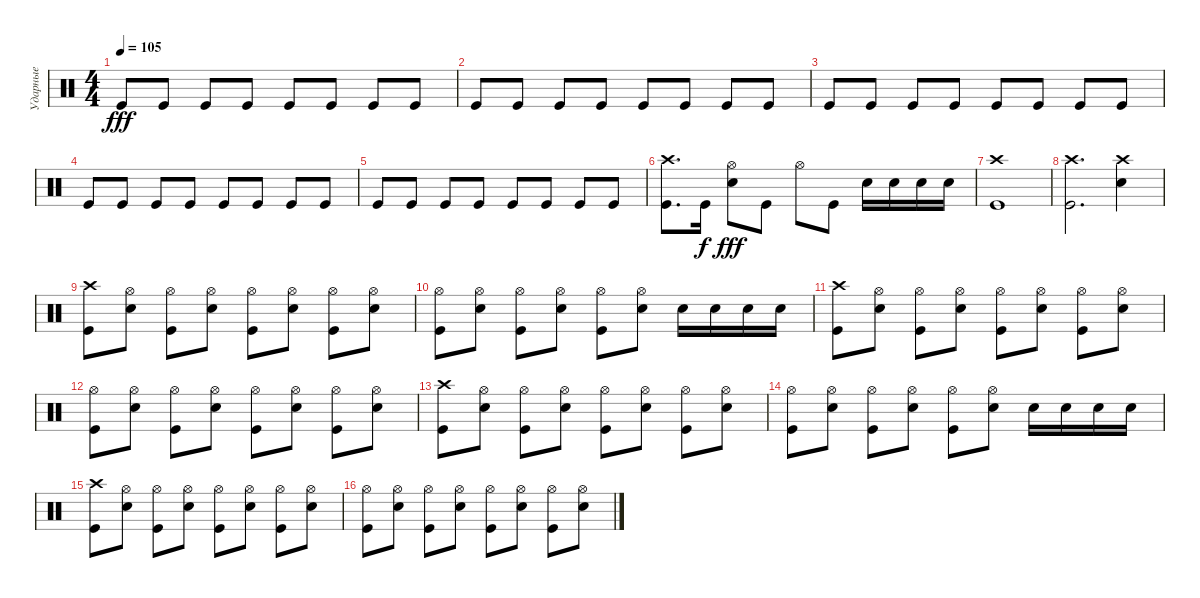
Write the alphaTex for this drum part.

\track ("Ударные" "Ударные") {instrument percussion}
\staff {score}
\articulation defaults
\ts (4 4)
\tempo 105
\clef neutral
\ks c "Kick (hit)".8{dy fff} "Kick (hit)".8 "Kick (hit)".8 "Kick (hit)".8 "Kick (hit)".8 "Kick (hit)".8 "Kick (hit)".8 "Kick (hit)".8
|
"Kick (hit)".8 "Kick (hit)".8 "Kick (hit)".8 "Kick (hit)".8 "Kick (hit)".8 "Kick (hit)".8 "Kick (hit)".8 "Kick (hit)".8 |
"Kick (hit)".8 "Kick (hit)".8 "Kick (hit)".8 "Kick (hit)".8 "Kick (hit)".8 "Kick (hit)".8 "Kick (hit)".8 "Kick (hit)".8 |
"Kick (hit)".8 "Kick (hit)".8 "Kick (hit)".8 "Kick (hit)".8 "Kick (hit)".8 "Kick (hit)".8 "Kick (hit)".8 "Kick (hit)".8 |
"Kick (hit)".8 "Kick (hit)".8 "Kick (hit)".8 "Kick (hit)".8 "Kick (hit)".8 "Kick (hit)".8 "Kick (hit)".8 "Kick (hit)".8 |
("Crash high (hit)" "Kick (hit)").8{d} "Kick (hit)".16{dy f} ("Hi-Hat (open)" "Electric Snare (hit)").8{dy fff} "Kick (hit)".8 "Hi-Hat (open)".8 "Kick (hit)".8 "Electric Snare (hit)".16 "Electric Snare (hit)".16 "Electric Snare (hit)".16 "Electric Snare (hit)".16 |
("Kick (hit)" "Crash high (hit)").1 |
("Kick (hit)" "Crash high (hit)").2{d} ("Electric Snare (hit)" "Crash high (hit)").4 |
("Crash high (hit)" "Kick (hit)").8 ("Electric Snare (hit)" "Hi-Hat (open)").8 ("Hi-Hat (open)" "Kick (hit)").8 ("Hi-Hat (open)" "Electric Snare (hit)").8 ("Kick (hit)" "Hi-Hat (open)").8 ("Electric Snare (hit)" "Hi-Hat (open)").8 ("Kick (hit)" "Hi-Hat (open)").8 ("Electric Snare (hit)" "Hi-Hat (open)").8 |
("Hi-Hat (open)" "Kick (hit)").8 ("Electric Snare (hit)" "Hi-Hat (open)").8 ("Hi-Hat (open)" "Kick (hit)").8 ("Hi-Hat (open)" "Electric Snare (hit)").8 ("Kick (hit)" "Hi-Hat (open)").8 ("Electric Snare (hit)" "Hi-Hat (open)").8 "Electric Snare (hit)".16 "Electric Snare (hit)".16 "Electric Snare (hit)".16 "Electric Snare (hit)".16 |
("Crash high (hit)" "Kick (hit)").8 ("Electric Snare (hit)" "Hi-Hat (open)").8 ("Hi-Hat (open)" "Kick (hit)").8 ("Hi-Hat (open)" "Electric Snare (hit)").8 ("Kick (hit)" "Hi-Hat (open)").8 ("Electric Snare (hit)" "Hi-Hat (open)").8 ("Kick (hit)" "Hi-Hat (open)").8 ("Electric Snare (hit)" "Hi-Hat (open)").8 |
("Hi-Hat (open)" "Kick (hit)").8 ("Electric Snare (hit)" "Hi-Hat (open)").8 ("Hi-Hat (open)" "Kick (hit)").8 ("Hi-Hat (open)" "Electric Snare (hit)").8 ("Kick (hit)" "Hi-Hat (open)").8 ("Electric Snare (hit)" "Hi-Hat (open)").8 ("Kick (hit)" "Hi-Hat (open)").8 ("Electric Snare (hit)" "Hi-Hat (open)").8 |
("Crash high (hit)" "Kick (hit)").8 ("Electric Snare (hit)" "Hi-Hat (open)").8 ("Hi-Hat (open)" "Kick (hit)").8 ("Hi-Hat (open)" "Electric Snare (hit)").8 ("Kick (hit)" "Hi-Hat (open)").8 ("Electric Snare (hit)" "Hi-Hat (open)").8 ("Kick (hit)" "Hi-Hat (open)").8 ("Electric Snare (hit)" "Hi-Hat (open)").8 |
("Hi-Hat (open)" "Kick (hit)").8 ("Electric Snare (hit)" "Hi-Hat (open)").8 ("Hi-Hat (open)" "Kick (hit)").8 ("Hi-Hat (open)" "Electric Snare (hit)").8 ("Kick (hit)" "Hi-Hat (open)").8 ("Electric Snare (hit)" "Hi-Hat (open)").8 "Electric Snare (hit)".16 "Electric Snare (hit)".16 "Electric Snare (hit)".16 "Electric Snare (hit)".16 |
("Crash high (hit)" "Kick (hit)").8 ("Electric Snare (hit)" "Hi-Hat (open)").8 ("Hi-Hat (open)" "Kick (hit)").8 ("Hi-Hat (open)" "Electric Snare (hit)").8 ("Kick (hit)" "Hi-Hat (open)").8 ("Electric Snare (hit)" "Hi-Hat (open)").8 ("Kick (hit)" "Hi-Hat (open)").8 ("Electric Snare (hit)" "Hi-Hat (open)").8 |
("Hi-Hat (open)" "Kick (hit)").8 ("Electric Snare (hit)" "Hi-Hat (open)").8 ("Hi-Hat (open)" "Kick (hit)").8 ("Hi-Hat (open)" "Electric Snare (hit)").8 ("Kick (hit)" "Hi-Hat (open)").8 ("Electric Snare (hit)" "Hi-Hat (open)").8 ("Kick (hit)" "Hi-Hat (open)").8 ("Electric Snare (hit)" "Hi-Hat (open)").8
